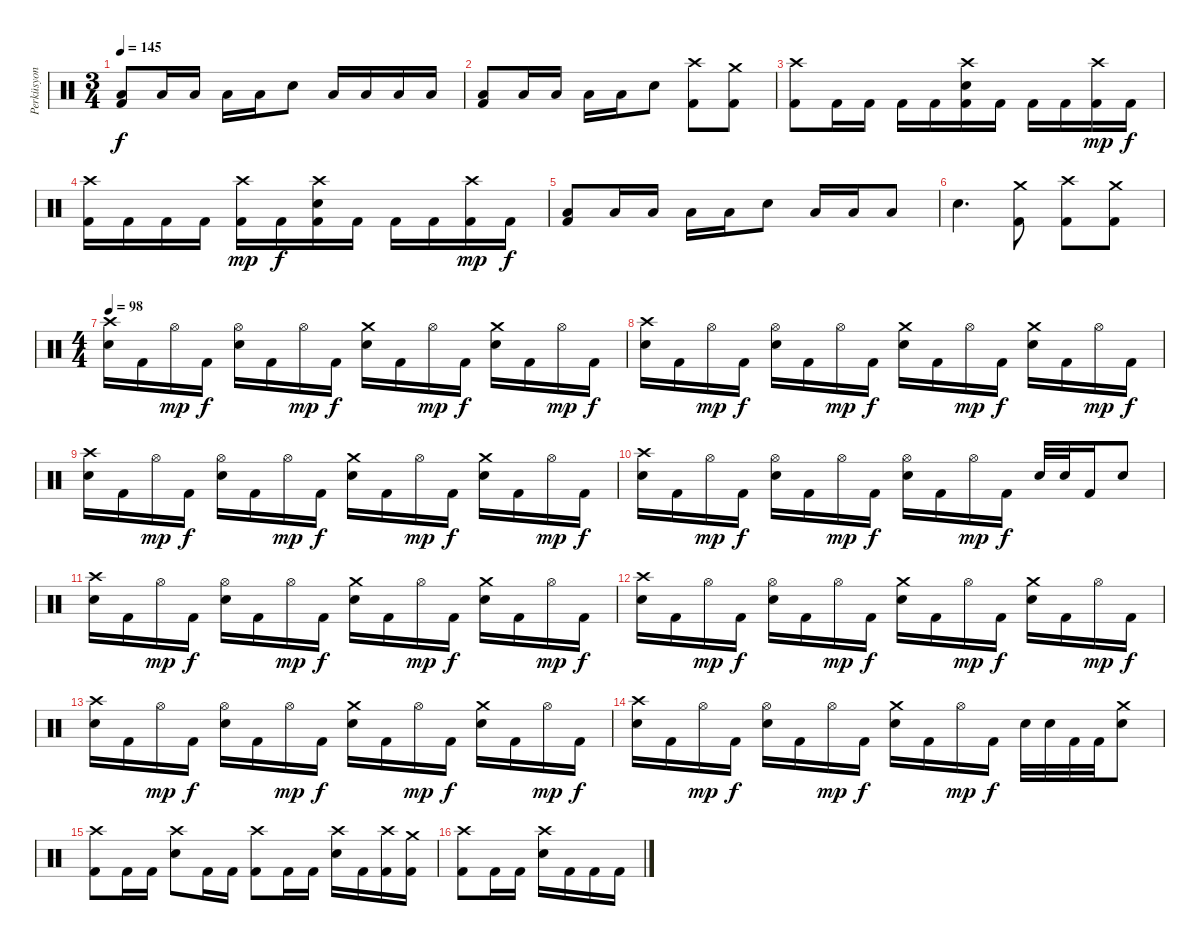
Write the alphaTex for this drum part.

\track ("Perküsyon" "Perküsyon") {instrument percussion}
\staff {score}
\articulation defaults
\ts (3 4)
\tempo 145
\clef neutral
\ks c
("Low Tom (hit)" "Kick (hit) 2").8{dy f} "Low Tom (hit)".16 "Low Tom (hit)".16 "Low Tom (hit)".16 "Low Tom (hit)".16 "Snare (hit) 2".8 "Low Tom (hit)".16 "Low Tom (hit)".16 "Low Tom (hit)".16 "Low Tom (hit)".16 |
("Low Tom (hit)" "Kick (hit) 2").8 "Low Tom (hit)".16 "Low Tom (hit)".16 "Low Tom (hit)".16 "Low Tom (hit)".16 "Snare (hit) 2".8 ("Crash high (hit)" "Kick (hit) 2").8 ("Crash medium (hit)" "Kick (hit) 2").8 |
("Crash high (hit)" "Kick (hit) 2").8 "Kick (hit) 2".16 "Kick (hit) 2".16 "Kick (hit) 2".16 "Kick (hit) 2".16 ("Crash high (hit)" "Snare (hit) 2" "Kick (hit) 2").16 "Kick (hit) 2".16 "Kick (hit) 2".16 "Kick (hit) 2".16 ("Crash high (hit)" "Kick (hit) 2").16{dy mp} "Kick (hit) 2".16{dy f} |
("Crash high (hit)" "Kick (hit) 2").16 "Kick (hit) 2".16 "Kick (hit) 2".16 "Kick (hit) 2".16 ("Crash high (hit)" "Kick (hit) 2").16{dy mp} "Kick (hit) 2".16{dy f} ("Crash high (hit)" "Snare (hit) 2" "Kick (hit) 2").16 "Kick (hit) 2".16 "Kick (hit) 2".16 "Kick (hit) 2".16 ("Crash high (hit)" "Kick (hit) 2").16{dy mp} "Kick (hit) 2".16{dy f} |
("Low Tom (hit)" "Kick (hit) 2").8 "Low Tom (hit)".16 "Low Tom (hit)".16 "Low Tom (hit)".16 "Low Tom (hit)".16 "Snare (hit) 2".8 "Low Tom (hit)".16 "Low Tom (hit)".16 "Low Tom (hit)".8 |
"Snare (hit) 2".4{d} ("Crash medium (hit)" "Kick (hit) 2").8 ("Crash high (hit)" "Kick (hit) 2").8 ("Crash medium (hit)" "Kick (hit) 2").8 |
\ts (4 4)
\tempo 98
("Crash high (hit)" "Snare (hit) 2").16 "Kick (hit) 2".16 "Hi-Hat (open)".16{dy mp} "Kick (hit) 2".16{dy f} ("Snare (hit) 2" "Hi-Hat (open)").16 "Kick (hit) 2".16 "Hi-Hat (open)".16{dy mp} "Kick (hit) 2".16{dy f} ("Crash medium (hit)" "Snare (hit) 2").16 "Kick (hit) 2".16 "Hi-Hat (open)".16{dy mp} "Kick (hit) 2".16{dy f} ("Crash medium (hit)" "Snare (hit) 2").16 "Kick (hit) 2".16 "Hi-Hat (open)".16{dy mp} "Kick (hit) 2".16{dy f} |
("Crash high (hit)" "Snare (hit) 2").16 "Kick (hit) 2".16 "Hi-Hat (open)".16{dy mp} "Kick (hit) 2".16{dy f} ("Snare (hit) 2" "Hi-Hat (open)").16 "Kick (hit) 2".16 "Hi-Hat (open)".16{dy mp} "Kick (hit) 2".16{dy f} ("Crash medium (hit)" "Snare (hit) 2").16 "Kick (hit) 2".16 "Hi-Hat (open)".16{dy mp} "Kick (hit) 2".16{dy f} ("Crash medium (hit)" "Snare (hit) 2").16 "Kick (hit) 2".16 "Hi-Hat (open)".16{dy mp} "Kick (hit) 2".16{dy f} |
("Crash high (hit)" "Snare (hit) 2").16 "Kick (hit) 2".16 "Hi-Hat (open)".16{dy mp} "Kick (hit) 2".16{dy f} ("Snare (hit) 2" "Hi-Hat (open)").16 "Kick (hit) 2".16 "Hi-Hat (open)".16{dy mp} "Kick (hit) 2".16{dy f} ("Crash medium (hit)" "Snare (hit) 2").16 "Kick (hit) 2".16 "Hi-Hat (open)".16{dy mp} "Kick (hit) 2".16{dy f} ("Crash medium (hit)" "Snare (hit) 2").16 "Kick (hit) 2".16 "Hi-Hat (open)".16{dy mp} "Kick (hit) 2".16{dy f} |
("Crash high (hit)" "Snare (hit) 2").16 "Kick (hit) 2".16 "Hi-Hat (open)".16{dy mp} "Kick (hit) 2".16{dy f} ("Snare (hit) 2" "Hi-Hat (open)").16 "Kick (hit) 2".16 "Hi-Hat (open)".16{dy mp} "Kick (hit) 2".16{dy f} ("Snare (hit) 2" "Hi-Hat (open)").16 "Kick (hit) 2".16 "Hi-Hat (open)".16{dy mp} "Kick (hit) 2".16{dy f} "Snare (hit) 2".32 "Snare (hit) 2".32 "Kick (hit) 2".16 "Snare (hit) 2".8 |
("Crash high (hit)" "Snare (hit) 2").16 "Kick (hit) 2".16 "Hi-Hat (open)".16{dy mp} "Kick (hit) 2".16{dy f} ("Snare (hit) 2" "Hi-Hat (open)").16 "Kick (hit) 2".16 "Hi-Hat (open)".16{dy mp} "Kick (hit) 2".16{dy f} ("Crash medium (hit)" "Snare (hit) 2").16 "Kick (hit) 2".16 "Hi-Hat (open)".16{dy mp} "Kick (hit) 2".16{dy f} ("Crash medium (hit)" "Snare (hit) 2").16 "Kick (hit) 2".16 "Hi-Hat (open)".16{dy mp} "Kick (hit) 2".16{dy f} |
("Crash high (hit)" "Snare (hit) 2").16 "Kick (hit) 2".16 "Hi-Hat (open)".16{dy mp} "Kick (hit) 2".16{dy f} ("Snare (hit) 2" "Hi-Hat (open)").16 "Kick (hit) 2".16 "Hi-Hat (open)".16{dy mp} "Kick (hit) 2".16{dy f} ("Crash medium (hit)" "Snare (hit) 2").16 "Kick (hit) 2".16 "Hi-Hat (open)".16{dy mp} "Kick (hit) 2".16{dy f} ("Crash medium (hit)" "Snare (hit) 2").16 "Kick (hit) 2".16 "Hi-Hat (open)".16{dy mp} "Kick (hit) 2".16{dy f} |
("Crash high (hit)" "Snare (hit) 2").16 "Kick (hit) 2".16 "Hi-Hat (open)".16{dy mp} "Kick (hit) 2".16{dy f} ("Snare (hit) 2" "Hi-Hat (open)").16 "Kick (hit) 2".16 "Hi-Hat (open)".16{dy mp} "Kick (hit) 2".16{dy f} ("Crash medium (hit)" "Snare (hit) 2").16 "Kick (hit) 2".16 "Hi-Hat (open)".16{dy mp} "Kick (hit) 2".16{dy f} ("Crash medium (hit)" "Snare (hit) 2").16 "Kick (hit) 2".16 "Hi-Hat (open)".16{dy mp} "Kick (hit) 2".16{dy f} |
("Crash high (hit)" "Snare (hit) 2").16 "Kick (hit) 2".16 "Hi-Hat (open)".16{dy mp} "Kick (hit) 2".16{dy f} ("Snare (hit) 2" "Hi-Hat (open)").16 "Kick (hit) 2".16 "Hi-Hat (open)".16{dy mp} "Kick (hit) 2".16{dy f} ("Crash medium (hit)" "Snare (hit) 2").16 "Kick (hit) 2".16 "Hi-Hat (open)".16{dy mp} "Kick (hit) 2".16{dy f} "Snare (hit) 2".32 "Snare (hit) 2".32 "Kick (hit) 2".32 "Kick (hit) 2".32 ("Crash medium (hit)" "Snare (hit) 2").8 |
("Crash high (hit)" "Kick (hit) 2").8 "Kick (hit) 2".16 "Kick (hit) 2".16 ("Crash high (hit)" "Snare (hit) 2").8 "Kick (hit) 2".16 "Kick (hit) 2".16 ("Crash high (hit)" "Kick (hit) 2").8 "Kick (hit) 2".16 "Kick (hit) 2".16 ("Crash high (hit)" "Snare (hit) 2").16 "Kick (hit) 2".16 ("Crash high (hit)" "Kick (hit) 2").16 ("Crash medium (hit)" "Kick (hit) 2").16 |
("Crash high (hit)" "Kick (hit) 2").8 "Kick (hit) 2".16 "Kick (hit) 2".16 ("Crash high (hit)" "Snare (hit) 2").16 "Kick (hit) 2".16 "Kick (hit) 2".16 "Kick (hit) 2".16
